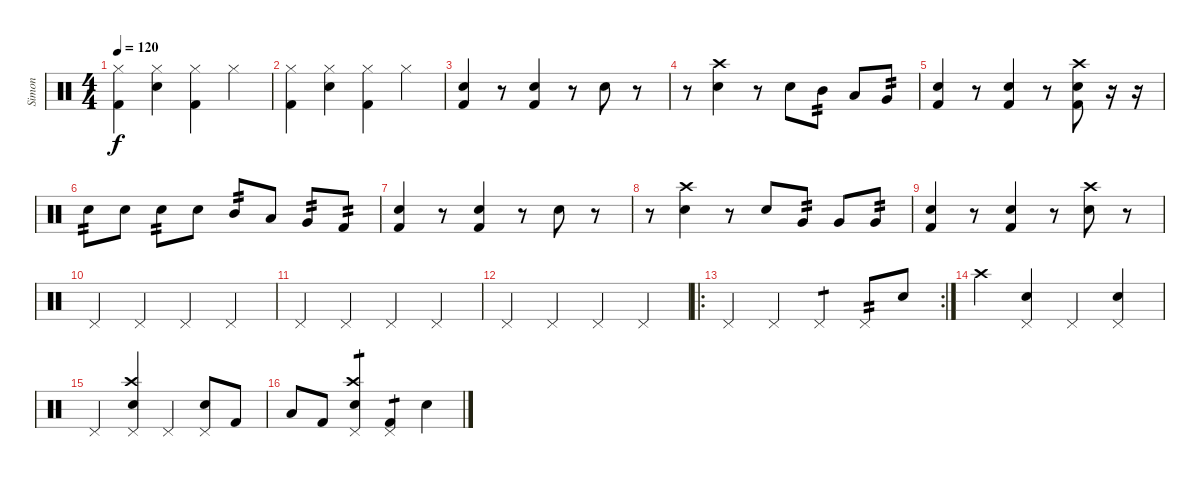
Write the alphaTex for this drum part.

\track ("Simon" "Simon") {instrument percussion}
\staff {score}
\articulation defaults
\ts (4 4)
\tempo 120
\clef neutral
\ks c
("Hi-Hat (closed)" "Kick (hit) 2").4{dy f} ("Hi-Hat (closed)" "Electric Snare (hit)").4 ("Hi-Hat (closed)" "Kick (hit) 2").4 "Hi-Hat (closed)".4 |
("Hi-Hat (closed)" "Kick (hit) 2").4 ("Hi-Hat (closed)" "Electric Snare (hit)").4 ("Hi-Hat (closed)" "Kick (hit) 2").4 "Hi-Hat (closed)".4 |
("Kick (hit) 2" "Snare (hit) 2").4 r.8 ("Kick (hit) 2" "Snare (hit) 2").4 r.8 "Snare (hit) 2".8 r.8 |
r.8 ("Snare (hit) 2" "Crash high (hit)").4 r.8 "Snare (hit) 2".8 "Mid Tom (hit)".8{tp 2} "Low Tom (hit)".8 "Very Low Tom (hit)".8{tp 2} |
("Kick (hit) 2" "Snare (hit) 2").4 r.8 ("Kick (hit) 2" "Snare (hit) 2").4 r.8 ("Kick (hit) 2" "Snare (hit) 2" "Crash high (hit)").8 r.16 r.16 |
"Snare (hit) 2".8{tp 2} "Snare (hit) 2".8 "Snare (hit) 2".8{tp 2} "Snare (hit) 2".8 "Mid Tom (hit)".8{tp 2} "Low Tom (hit)".8 "Very Low Tom (hit)".8{tp 2} "Kick (hit) 2".8{tp 2} |
("Kick (hit) 2" "Snare (hit) 2").4 r.8 ("Kick (hit) 2" "Snare (hit) 2").4 r.8 "Snare (hit) 2".8 r.8 |
r.8 ("Snare (hit) 2" "Crash high (hit)").4 r.8 "Snare (hit) 2".8 "Very Low Tom (hit)".8{tp 2} "Very Low Tom (hit)".8 "Very Low Tom (hit)".8{tp 2} |
("Kick (hit) 2" "Snare (hit) 2").4 r.8 ("Kick (hit) 2" "Snare (hit) 2").4 r.8 ("Snare (hit) 2" "Crash high (hit)").8 r.8 |
"Pedal Hi-Hat (hit)".4 "Pedal Hi-Hat (hit)".4 "Pedal Hi-Hat (hit)".4 "Pedal Hi-Hat (hit)".4 |
"Pedal Hi-Hat (hit)".4 "Pedal Hi-Hat (hit)".4 "Pedal Hi-Hat (hit)".4 "Pedal Hi-Hat (hit)".4 |
"Pedal Hi-Hat (hit)".4 "Pedal Hi-Hat (hit)".4 "Pedal Hi-Hat (hit)".4 "Pedal Hi-Hat (hit)".4 |
\ro
\rc 2 "Pedal Hi-Hat (hit)".4 "Pedal Hi-Hat (hit)".4 "Pedal Hi-Hat (hit)".4{tp 1} "Pedal Hi-Hat (hit)".8{tp 2} "Snare (hit) 2".8
|
"Crash high (hit)".4 ("Snare (hit) 2" "Pedal Hi-Hat (hit)").4 "Pedal Hi-Hat (hit)".4 ("Snare (hit) 2" "Pedal Hi-Hat (hit)").4 |
"Pedal Hi-Hat (hit)".4 ("Snare (hit) 2" "Pedal Hi-Hat (hit)" "Crash high (hit)").4 "Pedal Hi-Hat (hit)".4 ("Snare (hit) 2" "Pedal Hi-Hat (hit)").8 "Kick (hit) 2".8 |
"Low Floor Tom (hit)".8 "Kick (hit) 2".8 ("Snare (hit) 2" "Pedal Hi-Hat (hit)" "Crash high (hit)").4{tp 1} ("Kick (hit) 2" "Pedal Hi-Hat (hit)").4{tp 1} "Snare (hit) 2".4
